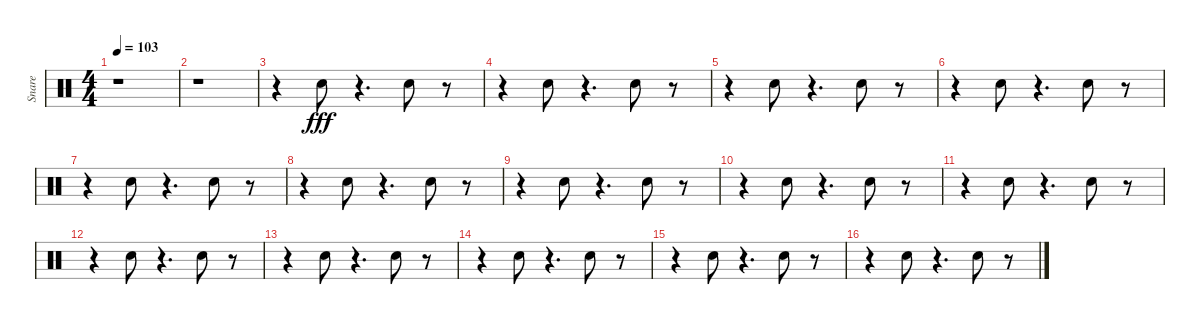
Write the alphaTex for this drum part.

\track ("Snare" "Snare") {instrument percussion}
\staff {score}
\articulation defaults
\ts (4 4)
\tempo 103
\clef neutral
\ks c
r.1{dy fff} |
r.1 |
r.4 "Electric Snare (hit)".8 r.4{d} "Electric Snare (hit)".8 r.8 |
r.4 "Electric Snare (hit)".8 r.4{d} "Electric Snare (hit)".8 r.8 |
r.4 "Electric Snare (hit)".8 r.4{d} "Electric Snare (hit)".8 r.8 |
r.4 "Electric Snare (hit)".8 r.4{d} "Electric Snare (hit)".8 r.8 |
r.4 "Electric Snare (hit)".8 r.4{d} "Electric Snare (hit)".8 r.8 |
r.4 "Electric Snare (hit)".8 r.4{d} "Electric Snare (hit)".8 r.8 |
r.4 "Electric Snare (hit)".8 r.4{d} "Electric Snare (hit)".8 r.8 |
r.4 "Electric Snare (hit)".8 r.4{d} "Electric Snare (hit)".8 r.8 |
r.4 "Electric Snare (hit)".8 r.4{d} "Electric Snare (hit)".8 r.8 |
r.4 "Electric Snare (hit)".8 r.4{d} "Electric Snare (hit)".8 r.8 |
r.4 "Electric Snare (hit)".8 r.4{d} "Electric Snare (hit)".8 r.8 |
r.4 "Electric Snare (hit)".8 r.4{d} "Electric Snare (hit)".8 r.8 |
r.4 "Electric Snare (hit)".8 r.4{d} "Electric Snare (hit)".8 r.8 |
r.4 "Electric Snare (hit)".8 r.4{d} "Electric Snare (hit)".8 r.8
